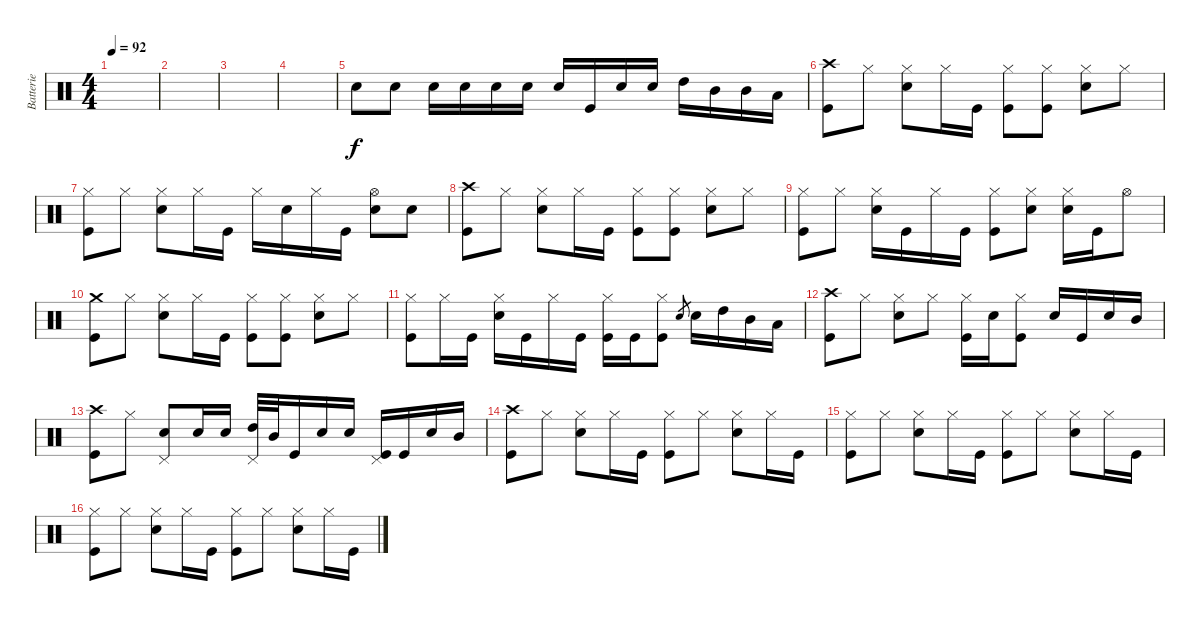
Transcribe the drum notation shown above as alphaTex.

\track ("Batterie" "Batterie") {instrument percussion}
\staff {score}
\articulation defaults
\ts (4 4)
\tempo 92
\clef neutral
\ks c
|
|
|
|
"Electric Snare (hit)".8 "Electric Snare (hit)".8 "Electric Snare (hit)".16 "Electric Snare (hit)".16 "Electric Snare (hit)".16 "Electric Snare (hit)".16 "Electric Snare (hit)".16 "Kick (hit)".16 "Electric Snare (hit)".16 "Electric Snare (hit)".16 "High Tom (hit)".16 "Mid Tom (hit)".16 "Mid Tom (hit)".16 "Low Floor Tom (hit)".16 |
("Crash high (hit)" "Kick (hit)").8 "Hi-Hat (closed)".8 ("Hi-Hat (closed)" "Electric Snare (hit)").8 "Hi-Hat (closed)".16 "Kick (hit)".16 ("Hi-Hat (closed)" "Kick (hit)").8 ("Hi-Hat (closed)" "Kick (hit)").8 ("Hi-Hat (closed)" "Electric Snare (hit)").8 "Hi-Hat (closed)".8 |
("Hi-Hat (closed)" "Kick (hit)").8 "Hi-Hat (closed)".8 ("Hi-Hat (closed)" "Electric Snare (hit)").8 "Hi-Hat (closed)".16 "Kick (hit)".16 "Hi-Hat (closed)".16 "Electric Snare (hit)".16 "Hi-Hat (closed)".16 "Kick (hit)".16 ("Hi-Hat (open)" "Electric Snare (hit)").8 "Electric Snare (hit)".8 |
("Crash high (hit)" "Kick (hit)").8 "Hi-Hat (closed)".8 ("Hi-Hat (closed)" "Electric Snare (hit)").8 "Hi-Hat (closed)".16 "Kick (hit)".16 ("Hi-Hat (closed)" "Kick (hit)").8 ("Hi-Hat (closed)" "Kick (hit)").8 ("Hi-Hat (closed)" "Electric Snare (hit)").8 "Hi-Hat (closed)".8 |
("Hi-Hat (closed)" "Kick (hit)").8 "Hi-Hat (closed)".8 ("Hi-Hat (closed)" "Electric Snare (hit)").16 "Kick (hit)".16 "Hi-Hat (closed)".16 "Kick (hit)".16 ("Hi-Hat (closed)" "Kick (hit)").8 ("Hi-Hat (closed)" "Electric Snare (hit)").8 ("Hi-Hat (closed)" "Electric Snare (hit)").16 "Kick (hit)".16 "Hi-Hat (open)".8 |
("Crash medium (hit)" "Kick (hit)").8 "Hi-Hat (closed)".8 ("Hi-Hat (closed)" "Electric Snare (hit)").8 "Hi-Hat (closed)".16 "Kick (hit)".16 ("Hi-Hat (closed)" "Kick (hit)").8 ("Hi-Hat (closed)" "Kick (hit)").8 ("Hi-Hat (closed)" "Electric Snare (hit)").8 "Hi-Hat (closed)".8 |
("Hi-Hat (closed)" "Kick (hit)").8 "Hi-Hat (closed)".16 "Kick (hit)".16 ("Hi-Hat (closed)" "Electric Snare (hit)").16 "Kick (hit)".16 "Hi-Hat (closed)".16 "Kick (hit)".16 ("Hi-Hat (closed)" "Kick (hit)").16 "Kick (hit)".16 ("Hi-Hat (closed)" "Kick (hit)").8 "Electric Snare (hit)".8{gr} "Electric Snare (hit)".16 "High Tom (hit)".16 "Mid Tom (hit)".16 "Low Floor Tom (hit)".16 |
("Crash high (hit)" "Kick (hit)").8 "Hi-Hat (closed)".8 ("Hi-Hat (closed)" "Electric Snare (hit)").8 "Hi-Hat (closed)".8 ("Hi-Hat (closed)" "Kick (hit)").16 "Electric Snare (hit)".16 ("Hi-Hat (closed)" "Kick (hit)").8 "Electric Snare (hit)".16 "Kick (hit)".16 "Electric Snare (hit)".16 "Mid Tom (hit)".16 |
("Crash high (hit)" "Kick (hit)").8 "Hi-Hat (closed)".8 ("Electric Snare (hit)" "Pedal Hi-Hat (hit)").8 "Electric Snare (hit)".16 "Electric Snare (hit)".16 ("High Tom (hit)" "Pedal Hi-Hat (hit)").32 "Mid Tom (hit)".32 "Kick (hit)".16 "Electric Snare (hit)".16 "Electric Snare (hit)".16 ("Kick (hit)" "Pedal Hi-Hat (hit)").16 "Kick (hit)".16 "Electric Snare (hit)".16 "Mid Tom (hit)".16 |
("Crash high (hit)" "Kick (hit)").8 "Hi-Hat (closed)".8 ("Hi-Hat (closed)" "Electric Snare (hit)").8 "Hi-Hat (closed)".16 "Kick (hit)".16 ("Hi-Hat (closed)" "Kick (hit)").8 "Hi-Hat (closed)".8 ("Hi-Hat (closed)" "Electric Snare (hit)").8 "Hi-Hat (closed)".16 "Kick (hit)".16 |
("Hi-Hat (closed)" "Kick (hit)").8 "Hi-Hat (closed)".8 ("Hi-Hat (closed)" "Electric Snare (hit)").8 "Hi-Hat (closed)".16 "Kick (hit)".16 ("Hi-Hat (closed)" "Kick (hit)").8 "Hi-Hat (closed)".8 ("Hi-Hat (closed)" "Electric Snare (hit)").8 "Hi-Hat (closed)".16 "Kick (hit)".16 |
("Hi-Hat (closed)" "Kick (hit)").8 "Hi-Hat (closed)".8 ("Hi-Hat (closed)" "Electric Snare (hit)").8 "Hi-Hat (closed)".16 "Kick (hit)".16 ("Hi-Hat (closed)" "Kick (hit)").8 "Hi-Hat (closed)".8 ("Hi-Hat (closed)" "Electric Snare (hit)").8 "Hi-Hat (closed)".16 "Kick (hit)".16
